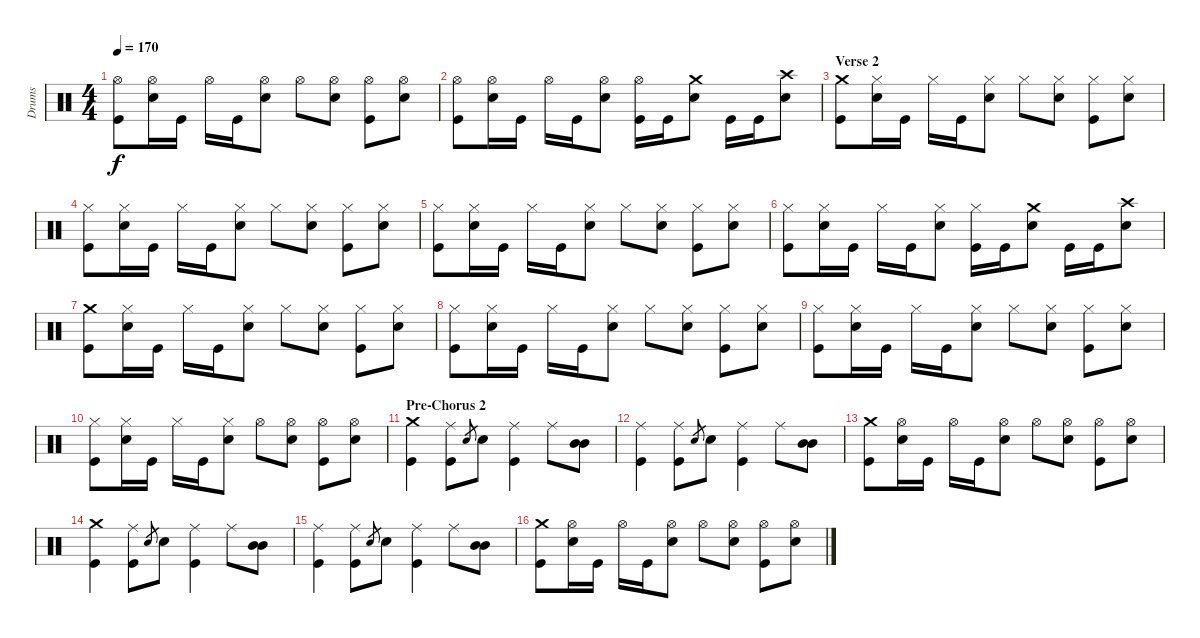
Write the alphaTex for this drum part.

\track ("Drums" "Drums") {instrument percussion}
\staff {score}
\articulation defaults
\ts (4 4)
\tempo 170
\clef neutral
\ks c
("Hi-Hat (open)" "Kick (hit)").8{dy f} ("Hi-Hat (open)" "Snare (hit) 2").16 "Kick (hit)".16 "Hi-Hat (open)".16 "Kick (hit)".16 ("Hi-Hat (open)" "Snare (hit) 2").8 "Hi-Hat (open)".8 ("Hi-Hat (open)" "Snare (hit) 2").8 ("Hi-Hat (open)" "Kick (hit)").8 ("Hi-Hat (open)" "Snare (hit) 2").8 |
("Hi-Hat (open)" "Kick (hit)").8 ("Hi-Hat (open)" "Snare (hit) 2").16 "Kick (hit)".16 "Hi-Hat (open)".16 "Kick (hit)".16 ("Hi-Hat (open)" "Snare (hit) 2").8 ("Hi-Hat (open)" "Kick (hit)").16 "Kick (hit)".16 ("Crash medium (hit)" "Snare (hit) 2").8 "Kick (hit)".16 "Kick (hit)".16 ("Crash high (hit)" "Snare (hit) 2").8 |
\section ("" "Verse 2")
("Crash medium (hit)" "Kick (hit)").8 ("Hi-Hat (closed)" "Snare (hit) 2").16 "Kick (hit)".16 "Hi-Hat (closed)".16 "Kick (hit)".16 ("Hi-Hat (closed)" "Snare (hit) 2").8 "Hi-Hat (closed)".8 ("Hi-Hat (closed)" "Snare (hit) 2").8 ("Hi-Hat (closed)" "Kick (hit)").8 ("Hi-Hat (closed)" "Snare (hit) 2").8 |
("Hi-Hat (closed)" "Kick (hit)").8 ("Hi-Hat (closed)" "Snare (hit) 2").16 "Kick (hit)".16 "Hi-Hat (closed)".16 "Kick (hit)".16 ("Hi-Hat (closed)" "Snare (hit) 2").8 "Hi-Hat (closed)".8 ("Hi-Hat (closed)" "Snare (hit) 2").8 ("Hi-Hat (closed)" "Kick (hit)").8 ("Hi-Hat (closed)" "Snare (hit) 2").8 |
("Hi-Hat (closed)" "Kick (hit)").8 ("Hi-Hat (closed)" "Snare (hit) 2").16 "Kick (hit)".16 "Hi-Hat (closed)".16 "Kick (hit)".16 ("Hi-Hat (closed)" "Snare (hit) 2").8 "Hi-Hat (closed)".8 ("Hi-Hat (closed)" "Snare (hit) 2").8 ("Hi-Hat (closed)" "Kick (hit)").8 ("Hi-Hat (closed)" "Snare (hit) 2").8 |
("Hi-Hat (closed)" "Kick (hit)").8 ("Hi-Hat (closed)" "Snare (hit) 2").16 "Kick (hit)".16 "Hi-Hat (closed)".16 "Kick (hit)".16 ("Hi-Hat (closed)" "Snare (hit) 2").8 ("Hi-Hat (closed)" "Kick (hit)").16 "Kick (hit)".16 ("Crash medium (hit)" "Snare (hit) 2").8 "Kick (hit)".16 "Kick (hit)".16 ("Crash high (hit)" "Snare (hit) 2").8 |
("Crash medium (hit)" "Kick (hit)").8 ("Hi-Hat (closed)" "Snare (hit) 2").16 "Kick (hit)".16 "Hi-Hat (closed)".16 "Kick (hit)".16 ("Hi-Hat (closed)" "Snare (hit) 2").8 "Hi-Hat (closed)".8 ("Hi-Hat (closed)" "Snare (hit) 2").8 ("Hi-Hat (closed)" "Kick (hit)").8 ("Hi-Hat (closed)" "Snare (hit) 2").8 |
("Hi-Hat (closed)" "Kick (hit)").8 ("Hi-Hat (closed)" "Snare (hit) 2").16 "Kick (hit)".16 "Hi-Hat (closed)".16 "Kick (hit)".16 ("Hi-Hat (closed)" "Snare (hit) 2").8 "Hi-Hat (closed)".8 ("Hi-Hat (closed)" "Snare (hit) 2").8 ("Hi-Hat (closed)" "Kick (hit)").8 ("Hi-Hat (closed)" "Snare (hit) 2").8 |
("Hi-Hat (closed)" "Kick (hit)").8 ("Hi-Hat (closed)" "Snare (hit) 2").16 "Kick (hit)".16 "Hi-Hat (closed)".16 "Kick (hit)".16 ("Hi-Hat (closed)" "Snare (hit) 2").8 "Hi-Hat (closed)".8 ("Hi-Hat (closed)" "Snare (hit) 2").8 ("Hi-Hat (closed)" "Kick (hit)").8 ("Hi-Hat (closed)" "Snare (hit) 2").8 |
("Hi-Hat (closed)" "Kick (hit)").8 ("Hi-Hat (closed)" "Snare (hit) 2").16 "Kick (hit)".16 "Hi-Hat (closed)".16 "Kick (hit)".16 ("Hi-Hat (closed)" "Snare (hit) 2").8 "Hi-Hat (open)".8{volume 9} ("Hi-Hat (open)" "Snare (hit) 2").8{volume 10} ("Hi-Hat (open)" "Kick (hit)").8{volume 12} ("Hi-Hat (open)" "Snare (hit) 2").8{volume 13} |
\section ("" "Pre-Chorus 2")
("Crash medium (hit)" "Kick (hit)").4 ("Ride (middle)" "Kick (hit)").8 "Snare (hit) 2".8{gr} "Snare (hit) 2".8 ("Ride (middle)" "Kick (hit)").4 "Ride (middle)".8 ("Mid Tom (hit)" "Mid Tom (hit)").8 |
("Ride (middle)" "Kick (hit)").4 ("Ride (middle)" "Kick (hit)").8 "Snare (hit) 2".8{gr} "Snare (hit) 2".8 ("Ride (middle)" "Kick (hit)").4 "Ride (middle)".8 ("Mid Tom (hit)" "Mid Tom (hit)").8 |
("Crash medium (hit)" "Kick (hit)").8 ("Hi-Hat (open)" "Snare (hit) 2").16 "Kick (hit)".16 "Hi-Hat (open)".16 "Kick (hit)".16 ("Hi-Hat (open)" "Snare (hit) 2").8 "Hi-Hat (open)".8 ("Hi-Hat (open)" "Snare (hit) 2").8 ("Hi-Hat (open)" "Kick (hit)").8 ("Hi-Hat (open)" "Snare (hit) 2").8 |
("Crash medium (hit)" "Kick (hit)").4 ("Ride (middle)" "Kick (hit)").8 "Snare (hit) 2".8{gr} "Snare (hit) 2".8 ("Ride (middle)" "Kick (hit)").4 "Ride (middle)".8 ("Mid Tom (hit)" "Mid Tom (hit)").8 |
("Ride (middle)" "Kick (hit)").4 ("Ride (middle)" "Kick (hit)").8 "Snare (hit) 2".8{gr} "Snare (hit) 2".8 ("Ride (middle)" "Kick (hit)").4 "Ride (middle)".8 ("Mid Tom (hit)" "Mid Tom (hit)").8 |
("Crash medium (hit)" "Kick (hit)").8 ("Hi-Hat (open)" "Snare (hit) 2").16 "Kick (hit)".16 "Hi-Hat (open)".16 "Kick (hit)".16 ("Hi-Hat (open)" "Snare (hit) 2").8 "Hi-Hat (open)".8 ("Hi-Hat (open)" "Snare (hit) 2").8 ("Hi-Hat (open)" "Kick (hit)").8 ("Hi-Hat (open)" "Snare (hit) 2").8
